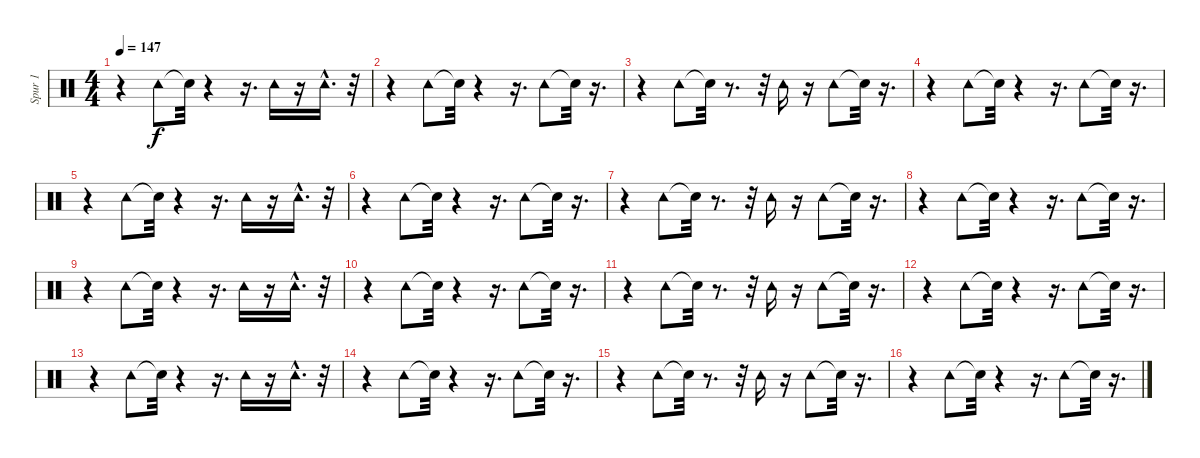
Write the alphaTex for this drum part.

\track ("Spur 1" "Spur 1") {instrument percussion}
\staff {score}
\articulation defaults
\ts (4 4)
\tempo 147
\clef neutral
\ks c
r.4{dy f} "Tambourine (hit)".8 "Snare (hit)"{t}.32 r.4 r.16{d} "Tambourine (hit)".16 r.16 "Tambourine (hit)"{hac}.16{d} r.32 |
r.4 "Tambourine (hit)".8 "Snare (hit)"{t}.32 r.4 r.16{d} "Tambourine (hit)".8 "Snare (hit)"{t}.32 r.16{d} |
r.4 "Tambourine (hit)".8 "Snare (hit)"{t}.32 r.8{d} r.32 "Tambourine (hit)".16 r.16 "Tambourine (hit)".8 "Snare (hit)"{t}.32 r.16{d} |
r.4 "Tambourine (hit)".8 "Snare (hit)"{t}.32 r.4 r.16{d} "Tambourine (hit)".8 "Snare (hit)"{t}.32 r.16{d} |
r.4 "Tambourine (hit)".8 "Snare (hit)"{t}.32 r.4 r.16{d} "Tambourine (hit)".16 r.16 "Tambourine (hit)"{hac}.16{d} r.32 |
r.4 "Tambourine (hit)".8 "Snare (hit)"{t}.32 r.4 r.16{d} "Tambourine (hit)".8 "Snare (hit)"{t}.32 r.16{d} |
r.4 "Tambourine (hit)".8{volume 12} "Snare (hit)"{t}.32 r.8{d} r.32 "Tambourine (hit)".16{volume 12} r.16 "Tambourine (hit)".8{volume 12} "Snare (hit)"{t}.32 r.16{d} |
r.4 "Tambourine (hit)".8{volume 11} "Snare (hit)"{t}.32 r.4 r.16{d} "Tambourine (hit)".8{volume 11} "Snare (hit)"{t}.32 r.16{d} |
r.4 "Tambourine (hit)".8{volume 10} "Snare (hit)"{t}.32 r.4 r.16{d} "Tambourine (hit)".16{volume 10} r.16 "Tambourine (hit)"{hac}.16{d volume 10} r.32 |
r.4 "Tambourine (hit)".8{volume 9} "Snare (hit)"{t}.32 r.4 r.16{d} "Tambourine (hit)".8{volume 9} "Snare (hit)"{t}.32 r.16{d} |
r.4 "Tambourine (hit)".8{volume 8} "Snare (hit)"{t}.32 r.8{d} r.32 "Tambourine (hit)".16{volume 8} r.16 "Tambourine (hit)".8{volume 8} "Snare (hit)"{t}.32 r.16{d} |
r.4 "Tambourine (hit)".8{volume 7} "Snare (hit)"{t}.32 r.4 r.16{d} "Tambourine (hit)".8{volume 6} "Snare (hit)"{t}.32 r.16{d} |
r.4 "Tambourine (hit)".8{volume 6} "Snare (hit)"{t}.32 r.4 r.16{d} "Tambourine (hit)".16{volume 6} r.16 "Tambourine (hit)"{hac}.16{d volume 5} r.32 |
r.4 "Tambourine (hit)".8{volume 5} "Snare (hit)"{t}.32 r.4 r.16{d} "Tambourine (hit)".8{volume 4} "Snare (hit)"{t}.32 r.16{d} |
r.4 "Tambourine (hit)".8{volume 4} "Snare (hit)"{t}.32 r.8{d} r.32 "Tambourine (hit)".16{volume 4} r.16 "Tambourine (hit)".8{volume 3} "Snare (hit)"{t}.32 r.16{d} |
r.4 "Tambourine (hit)".8{volume 3} "Snare (hit)"{t}.32 r.4 r.16{d} "Tambourine (hit)".8{volume 2} "Snare (hit)"{t}.32 r.16{d}
